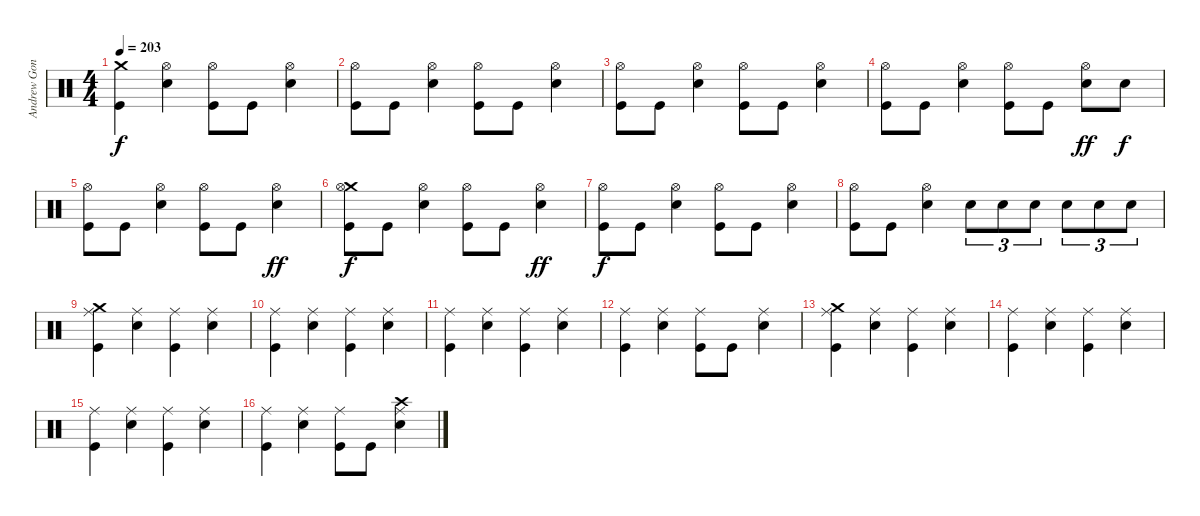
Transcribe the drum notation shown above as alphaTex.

\track ("Andrew Gonzales" "Andrew Gon") {instrument percussion}
\staff {score}
\articulation defaults
\ts (4 4)
\tempo 203
\clef neutral
\ks c
("Crash medium (hit)" "Kick (hit)").4{dy f} ("Hi-Hat (open)" "Electric Snare (hit)").4 ("Hi-Hat (open)" "Kick (hit)").8 "Kick (hit)".8 ("Hi-Hat (open)" "Electric Snare (hit)").4 |
("Hi-Hat (open)" "Kick (hit)").8 "Kick (hit)".8 ("Hi-Hat (open)" "Electric Snare (hit)").4 ("Hi-Hat (open)" "Kick (hit)").8 "Kick (hit)".8 ("Hi-Hat (open)" "Electric Snare (hit)").4 |
("Hi-Hat (open)" "Kick (hit)").8 "Kick (hit)".8 ("Hi-Hat (open)" "Electric Snare (hit)").4 ("Hi-Hat (open)" "Kick (hit)").8 "Kick (hit)".8 ("Hi-Hat (open)" "Electric Snare (hit)").4 |
("Hi-Hat (open)" "Kick (hit)").8 "Kick (hit)".8 ("Hi-Hat (open)" "Electric Snare (hit)").4 ("Hi-Hat (open)" "Kick (hit)").8 "Kick (hit)".8 ("Hi-Hat (open)" "Electric Snare (hit)").8{dy ff} "Electric Snare (hit)".8{dy f} |
("Hi-Hat (open)" "Kick (hit)").8 "Kick (hit)".8 ("Hi-Hat (open)" "Electric Snare (hit)").4 ("Hi-Hat (open)" "Kick (hit)").8 "Kick (hit)".8 ("Hi-Hat (open)" "Electric Snare (hit)").4{dy ff} |
("Crash medium (hit)" "Hi-Hat (open)" "Kick (hit)").8{dy f} "Kick (hit)".8 ("Hi-Hat (open)" "Electric Snare (hit)").4 ("Hi-Hat (open)" "Kick (hit)").8 "Kick (hit)".8 ("Hi-Hat (open)" "Electric Snare (hit)").4{dy ff} |
("Hi-Hat (open)" "Kick (hit)").8{dy f} "Kick (hit)".8 ("Hi-Hat (open)" "Electric Snare (hit)").4 ("Hi-Hat (open)" "Kick (hit)").8 "Kick (hit)".8 ("Hi-Hat (open)" "Electric Snare (hit)").4 |
("Hi-Hat (open)" "Kick (hit)").8 "Kick (hit)".8 ("Hi-Hat (open)" "Electric Snare (hit)").4 "Electric Snare (hit)".8{tu (3 2)} "Electric Snare (hit)".8{tu (3 2)} "Electric Snare (hit)".8{tu (3 2)} "Electric Snare (hit)".8{tu (3 2)} "Electric Snare (hit)".8{tu (3 2)} "Electric Snare (hit)".8{tu (3 2)} |
("Crash medium (hit)" "Ride (middle)" "Kick (hit)").4 ("Ride (middle)" "Electric Snare (hit)").4 ("Ride (middle)" "Kick (hit)").4 ("Ride (middle)" "Electric Snare (hit)").4 |
("Ride (middle)" "Kick (hit)").4 ("Ride (middle)" "Electric Snare (hit)").4 ("Ride (middle)" "Kick (hit)").4 ("Ride (middle)" "Electric Snare (hit)").4 |
("Ride (middle)" "Kick (hit)").4 ("Ride (middle)" "Electric Snare (hit)").4 ("Ride (middle)" "Kick (hit)").4 ("Ride (middle)" "Electric Snare (hit)").4 |
("Ride (middle)" "Kick (hit)").4 ("Ride (middle)" "Electric Snare (hit)").4 ("Ride (middle)" "Kick (hit)").8 "Kick (hit)".8 ("Ride (middle)" "Electric Snare (hit)").4 |
("Crash medium (hit)" "Ride (middle)" "Kick (hit)").4 ("Ride (middle)" "Electric Snare (hit)").4 ("Ride (middle)" "Kick (hit)").4 ("Ride (middle)" "Electric Snare (hit)").4 |
("Ride (middle)" "Kick (hit)").4 ("Ride (middle)" "Electric Snare (hit)").4 ("Ride (middle)" "Kick (hit)").4 ("Ride (middle)" "Electric Snare (hit)").4 |
("Ride (middle)" "Kick (hit)").4 ("Ride (middle)" "Electric Snare (hit)").4 ("Ride (middle)" "Kick (hit)").4 ("Ride (middle)" "Electric Snare (hit)").4 |
("Ride (middle)" "Kick (hit)").4 ("Ride (middle)" "Electric Snare (hit)").4 ("Ride (middle)" "Kick (hit)").8 "Kick (hit)".8 ("Crash high (hit)" "Ride (middle)" "Electric Snare (hit)").4
